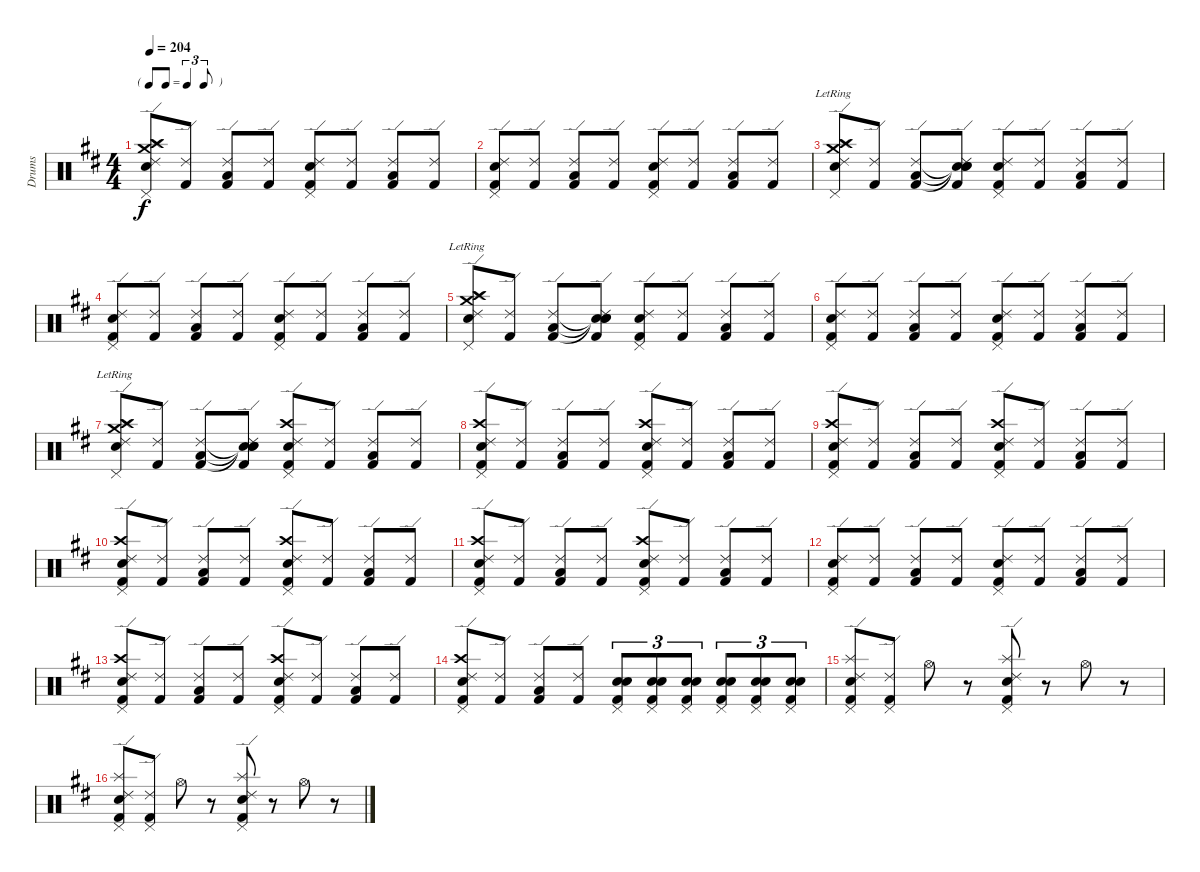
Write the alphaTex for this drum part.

\track ("Drums" "Drums") {instrument percussion}
\staff {score}
\articulation defaults
\ts (4 4)
\tf triplet8th
\tempo 204
\clef neutral
\ks d
("Ride (edge) 2" "Crash medium (hit)" "Crash high (hit)" "Pedal Hi-Hat (hit)" "Splash (hit)" "Snare (hit) 2").8{dy f} ("Kick (hit) 2" "Ride (edge) 2").8 ("Low Floor Tom (hit)" "Ride (edge) 2" "Kick (hit) 2").8 ("Kick (hit) 2" "Ride (edge) 2").8 ("Kick (hit) 2" "Snare (hit) 2" "Ride (edge) 2" "Pedal Hi-Hat (hit)").8 ("Kick (hit) 2" "Ride (edge) 2").8 ("Low Floor Tom (hit)" "Ride (edge) 2" "Kick (hit) 2").8 ("Kick (hit) 2" "Ride (edge) 2").8 |
("Kick (hit) 2" "Snare (hit) 2" "Ride (edge) 2" "Pedal Hi-Hat (hit)").8 ("Kick (hit) 2" "Ride (edge) 2").8 ("Low Floor Tom (hit)" "Ride (edge) 2" "Kick (hit) 2").8 ("Kick (hit) 2" "Ride (edge) 2").8 ("Kick (hit) 2" "Snare (hit) 2" "Ride (edge) 2" "Pedal Hi-Hat (hit)").8 ("Kick (hit) 2" "Ride (edge) 2").8 ("Low Floor Tom (hit)" "Ride (edge) 2" "Kick (hit) 2").8 ("Kick (hit) 2" "Ride (edge) 2").8 |
("Ride (edge) 2" "Crash medium (hit)" "Crash high (hit)"{lr} "Pedal Hi-Hat (hit)"{lr} "Splash (hit)"{lr} "Snare (hit) 2"{lr}).8 ("Kick (hit) 2" "Ride (edge) 2").8 ("Low Floor Tom (hit)" "Ride (edge) 2" "Kick (hit) 2").8 ("Snare (hit)"{t} "Snare (hit)"{t} "Snare (hit)"{t} "Kick (hit) 2" "Ride (edge) 2").8 ("Kick (hit) 2" "Snare (hit) 2" "Ride (edge) 2" "Pedal Hi-Hat (hit)").8 ("Kick (hit) 2" "Ride (edge) 2").8 ("Low Floor Tom (hit)" "Ride (edge) 2" "Kick (hit) 2").8 ("Kick (hit) 2" "Ride (edge) 2").8 |
("Kick (hit) 2" "Snare (hit) 2" "Ride (edge) 2" "Pedal Hi-Hat (hit)").8 ("Kick (hit) 2" "Ride (edge) 2").8 ("Low Floor Tom (hit)" "Ride (edge) 2" "Kick (hit) 2").8 ("Kick (hit) 2" "Ride (edge) 2").8 ("Kick (hit) 2" "Snare (hit) 2" "Ride (edge) 2" "Pedal Hi-Hat (hit)").8 ("Kick (hit) 2" "Ride (edge) 2").8 ("Low Floor Tom (hit)" "Ride (edge) 2" "Kick (hit) 2").8 ("Kick (hit) 2" "Ride (edge) 2").8 |
("Ride (edge) 2" "Crash medium (hit)" "Crash high (hit)"{lr} "Pedal Hi-Hat (hit)"{lr} "Splash (hit)"{lr} "Snare (hit) 2"{lr}).8 ("Kick (hit) 2" "Ride (edge) 2").8 ("Low Floor Tom (hit)" "Ride (edge) 2" "Kick (hit) 2").8 ("Snare (hit)"{t} "Snare (hit)"{t} "Snare (hit)"{t} "Kick (hit) 2" "Ride (edge) 2").8 ("Kick (hit) 2" "Snare (hit) 2" "Ride (edge) 2" "Pedal Hi-Hat (hit)").8 ("Kick (hit) 2" "Ride (edge) 2").8 ("Low Floor Tom (hit)" "Ride (edge) 2" "Kick (hit) 2").8 ("Kick (hit) 2" "Ride (edge) 2").8 |
("Kick (hit) 2" "Snare (hit) 2" "Ride (edge) 2" "Pedal Hi-Hat (hit)").8 ("Kick (hit) 2" "Ride (edge) 2").8 ("Low Floor Tom (hit)" "Ride (edge) 2" "Kick (hit) 2").8 ("Kick (hit) 2" "Ride (edge) 2").8 ("Kick (hit) 2" "Snare (hit) 2" "Ride (edge) 2" "Pedal Hi-Hat (hit)").8 ("Kick (hit) 2" "Ride (edge) 2").8 ("Low Floor Tom (hit)" "Ride (edge) 2" "Kick (hit) 2").8 ("Kick (hit) 2" "Ride (edge) 2").8 |
("Ride (edge) 2" "Crash medium (hit)" "Crash high (hit)"{lr} "Pedal Hi-Hat (hit)"{lr} "Splash (hit)"{lr} "Snare (hit) 2"{lr}).8 ("Kick (hit) 2" "Ride (edge) 2").8 ("Low Floor Tom (hit)" "Ride (edge) 2" "Kick (hit) 2").8 ("Snare (hit)"{t} "Snare (hit)"{t} "Snare (hit)"{t} "Kick (hit) 2" "Ride (edge) 2").8 ("Crash high (hit)" "Kick (hit) 2" "Snare (hit) 2" "Ride (edge) 2" "Pedal Hi-Hat (hit)").8 ("Kick (hit) 2" "Ride (edge) 2").8 ("Low Floor Tom (hit)" "Ride (edge) 2" "Kick (hit) 2").8 ("Kick (hit) 2" "Ride (edge) 2").8 |
("Crash high (hit)" "Kick (hit) 2" "Snare (hit) 2" "Ride (edge) 2" "Pedal Hi-Hat (hit)").8 ("Kick (hit) 2" "Ride (edge) 2").8 ("Low Floor Tom (hit)" "Ride (edge) 2" "Kick (hit) 2").8 ("Kick (hit) 2" "Ride (edge) 2").8 ("Crash high (hit)" "Kick (hit) 2" "Snare (hit) 2" "Ride (edge) 2" "Pedal Hi-Hat (hit)").8 ("Kick (hit) 2" "Ride (edge) 2").8 ("Low Floor Tom (hit)" "Ride (edge) 2" "Kick (hit) 2").8 ("Kick (hit) 2" "Ride (edge) 2").8 |
("Crash high (hit)" "Kick (hit) 2" "Snare (hit) 2" "Ride (edge) 2" "Pedal Hi-Hat (hit)").8 ("Kick (hit) 2" "Ride (edge) 2").8 ("Low Floor Tom (hit)" "Ride (edge) 2" "Kick (hit) 2").8 ("Kick (hit) 2" "Ride (edge) 2").8 ("Crash high (hit)" "Kick (hit) 2" "Snare (hit) 2" "Ride (edge) 2" "Pedal Hi-Hat (hit)").8 ("Kick (hit) 2" "Ride (edge) 2").8 ("Low Floor Tom (hit)" "Ride (edge) 2" "Kick (hit) 2").8 ("Kick (hit) 2" "Ride (edge) 2").8 |
("Crash high (hit)" "Kick (hit) 2" "Snare (hit) 2" "Ride (edge) 2" "Pedal Hi-Hat (hit)").8 ("Kick (hit) 2" "Ride (edge) 2").8 ("Low Floor Tom (hit)" "Ride (edge) 2" "Kick (hit) 2").8 ("Kick (hit) 2" "Ride (edge) 2").8 ("Crash high (hit)" "Kick (hit) 2" "Snare (hit) 2" "Ride (edge) 2" "Pedal Hi-Hat (hit)").8 ("Kick (hit) 2" "Ride (edge) 2").8 ("Low Floor Tom (hit)" "Ride (edge) 2" "Kick (hit) 2").8 ("Kick (hit) 2" "Ride (edge) 2").8 |
("Crash high (hit)" "Kick (hit) 2" "Snare (hit) 2" "Ride (edge) 2" "Pedal Hi-Hat (hit)").8 ("Kick (hit) 2" "Ride (edge) 2").8 ("Low Floor Tom (hit)" "Ride (edge) 2" "Kick (hit) 2").8 ("Kick (hit) 2" "Ride (edge) 2").8 ("Crash high (hit)" "Kick (hit) 2" "Snare (hit) 2" "Ride (edge) 2" "Pedal Hi-Hat (hit)").8 ("Kick (hit) 2" "Ride (edge) 2").8 ("Low Floor Tom (hit)" "Ride (edge) 2" "Kick (hit) 2").8 ("Kick (hit) 2" "Ride (edge) 2").8 |
("Kick (hit) 2" "Snare (hit) 2" "Ride (edge) 2" "Pedal Hi-Hat (hit)").8 ("Kick (hit) 2" "Ride (edge) 2").8 ("Low Floor Tom (hit)" "Ride (edge) 2" "Kick (hit) 2").8 ("Kick (hit) 2" "Ride (edge) 2").8 ("Kick (hit) 2" "Snare (hit) 2" "Ride (edge) 2" "Pedal Hi-Hat (hit)").8 ("Kick (hit) 2" "Ride (edge) 2").8 ("Low Floor Tom (hit)" "Ride (edge) 2" "Kick (hit) 2").8 ("Kick (hit) 2" "Ride (edge) 2").8 |
("Crash high (hit)" "Kick (hit) 2" "Snare (hit) 2" "Ride (edge) 2" "Pedal Hi-Hat (hit)").8 ("Kick (hit) 2" "Ride (edge) 2").8 ("Low Floor Tom (hit)" "Ride (edge) 2" "Kick (hit) 2").8 ("Kick (hit) 2" "Ride (edge) 2").8 ("Crash high (hit)" "Kick (hit) 2" "Snare (hit) 2" "Ride (edge) 2" "Pedal Hi-Hat (hit)").8 ("Kick (hit) 2" "Ride (edge) 2").8 ("Low Floor Tom (hit)" "Ride (edge) 2" "Kick (hit) 2").8 ("Kick (hit) 2" "Ride (edge) 2").8 |
("Crash high (hit)" "Kick (hit) 2" "Snare (hit) 2" "Ride (edge) 2" "Pedal Hi-Hat (hit)").8 ("Kick (hit) 2" "Ride (edge) 2").8 ("Low Floor Tom (hit)" "Ride (edge) 2" "Kick (hit) 2").8 ("Kick (hit) 2" "Ride (edge) 2").8 ("Kick (hit) 2" "Snare (hit) 2" "Snare (hit) 2" "Pedal Hi-Hat (hit)").8{tu (3 2)} ("Kick (hit) 2" "Snare (hit) 2" "Snare (hit) 2" "Pedal Hi-Hat (hit)").8{tu (3 2)} ("Kick (hit) 2" "Snare (hit) 2" "Snare (hit) 2" "Pedal Hi-Hat (hit)").8{tu (3 2)} ("Kick (hit) 2" "Snare (hit) 2" "Snare (hit) 2" "Pedal Hi-Hat (hit)").8{tu (3 2)} ("Kick (hit) 2" "Snare (hit) 2" "Snare (hit) 2" "Pedal Hi-Hat (hit)").8{tu (3 2)} ("Kick (hit) 2" "Snare (hit) 2" "Snare (hit) 2" "Pedal Hi-Hat (hit)").8{tu (3 2)} |
("Splash (hit)" "Kick (hit) 2" "Snare (hit) 2" "Ride (edge) 2" "Pedal Hi-Hat (hit)").8 ("Pedal Hi-Hat (hit)" "Kick (hit) 2" "Ride (edge) 2").8 "Hi-Hat (open)".8 r.8 ("Splash (hit)" "Kick (hit) 2" "Snare (hit) 2" "Ride (edge) 2" "Pedal Hi-Hat (hit)").8 r.8 "Hi-Hat (open)".8 r.8 |
("Splash (hit)" "Kick (hit) 2" "Snare (hit) 2" "Ride (edge) 2" "Pedal Hi-Hat (hit)").8 ("Pedal Hi-Hat (hit)" "Kick (hit) 2" "Ride (edge) 2").8 "Hi-Hat (open)".8 r.8 ("Splash (hit)" "Kick (hit) 2" "Snare (hit) 2" "Ride (edge) 2" "Pedal Hi-Hat (hit)").8 r.8 "Hi-Hat (open)".8 r.8
